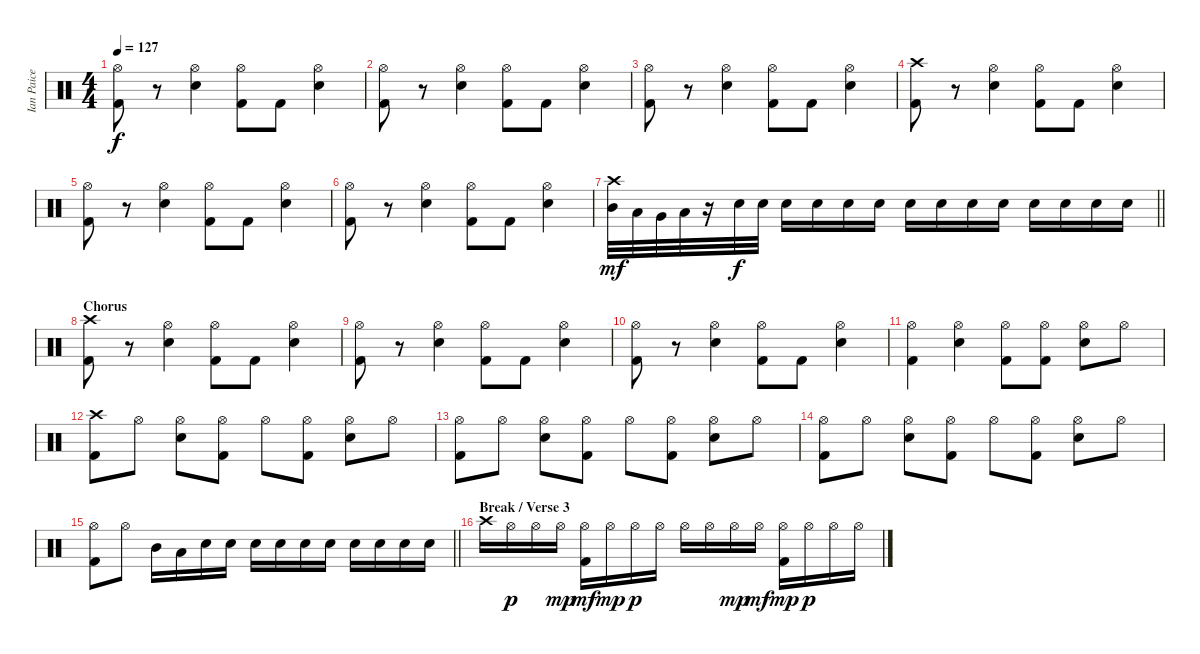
\track ("Ian Paice" "Ian Paice") {instrument percussion}
\staff {score}
\articulation defaults
\ts (4 4)
\tempo 127
\clef neutral
\ks c
("Hi-Hat (open)" "Kick (hit) 2").8{dy f} r.8 ("Hi-Hat (open)" "Snare (hit) 2").4 ("Hi-Hat (open)" "Kick (hit) 2").8 "Kick (hit) 2".8 ("Hi-Hat (open)" "Snare (hit) 2").4 |
("Hi-Hat (open)" "Kick (hit) 2").8 r.8 ("Hi-Hat (open)" "Snare (hit) 2").4 ("Hi-Hat (open)" "Kick (hit) 2").8 "Kick (hit) 2".8 ("Hi-Hat (open)" "Snare (hit) 2").4 |
("Hi-Hat (open)" "Kick (hit) 2").8 r.8 ("Hi-Hat (open)" "Snare (hit) 2").4 ("Hi-Hat (open)" "Kick (hit) 2").8 "Kick (hit) 2".8 ("Hi-Hat (open)" "Snare (hit) 2").4 |
("Crash high (hit)" "Kick (hit) 2").8 r.8 ("Hi-Hat (open)" "Snare (hit) 2").4 ("Hi-Hat (open)" "Kick (hit) 2").8 "Kick (hit) 2".8 ("Hi-Hat (open)" "Snare (hit) 2").4 |
("Hi-Hat (open)" "Kick (hit) 2").8 r.8 ("Hi-Hat (open)" "Snare (hit) 2").4 ("Hi-Hat (open)" "Kick (hit) 2").8 "Kick (hit) 2".8 ("Hi-Hat (open)" "Snare (hit) 2").4 |
("Hi-Hat (open)" "Kick (hit) 2").8 r.8 ("Hi-Hat (open)" "Snare (hit) 2").4 ("Hi-Hat (open)" "Kick (hit) 2").8 "Kick (hit) 2".8 ("Hi-Hat (open)" "Snare (hit) 2").4 |
\barLineRight lightlight
("Crash high (hit)" "Mid Tom (hit)").32{dy mf} "Low Tom (hit)".32 "Very Low Tom (hit)".32 "Low Floor Tom (hit)".32 r.16 "Snare (hit) 2".32{dy f} "Snare (hit) 2".32 "Snare (hit) 2".16 "Snare (hit) 2".16 "Snare (hit) 2".16 "Snare (hit) 2".16 "Snare (hit) 2".16 "Snare (hit) 2".16 "Snare (hit) 2".16 "Snare (hit) 2".16 "Snare (hit) 2".16 "Snare (hit) 2".16 "Snare (hit) 2".16 "Snare (hit) 2".16 |
\section ("" "Chorus")
("Crash high (hit)" "Kick (hit) 2").8 r.8 ("Hi-Hat (open)" "Snare (hit) 2").4 ("Hi-Hat (open)" "Kick (hit) 2").8 "Kick (hit) 2".8 ("Hi-Hat (open)" "Snare (hit) 2").4 |
("Hi-Hat (open)" "Kick (hit) 2").8 r.8 ("Hi-Hat (open)" "Snare (hit) 2").4 ("Hi-Hat (open)" "Kick (hit) 2").8 "Kick (hit) 2".8 ("Hi-Hat (open)" "Snare (hit) 2").4 |
("Hi-Hat (open)" "Kick (hit) 2").8 r.8 ("Hi-Hat (open)" "Snare (hit) 2").4 ("Hi-Hat (open)" "Kick (hit) 2").8 "Kick (hit) 2".8 ("Hi-Hat (open)" "Snare (hit) 2").4 |
("Hi-Hat (open)" "Kick (hit) 2").4 ("Hi-Hat (open)" "Snare (hit) 2").4 ("Hi-Hat (open)" "Kick (hit) 2").8 ("Hi-Hat (open)" "Kick (hit) 2").8 ("Hi-Hat (open)" "Snare (hit) 2").8 "Hi-Hat (open)".8 |
("Crash high (hit)" "Kick (hit) 2").8 "Hi-Hat (open)".8 ("Hi-Hat (open)" "Snare (hit) 2").8 ("Hi-Hat (open)" "Kick (hit) 2").8 "Hi-Hat (open)".8 ("Hi-Hat (open)" "Kick (hit) 2").8 ("Hi-Hat (open)" "Snare (hit) 2").8 "Hi-Hat (open)".8 |
("Hi-Hat (open)" "Kick (hit) 2").8 "Hi-Hat (open)".8 ("Hi-Hat (open)" "Snare (hit) 2").8 ("Hi-Hat (open)" "Kick (hit) 2").8 "Hi-Hat (open)".8 ("Hi-Hat (open)" "Kick (hit) 2").8 ("Hi-Hat (open)" "Snare (hit) 2").8 "Hi-Hat (open)".8 |
("Hi-Hat (open)" "Kick (hit) 2").8 "Hi-Hat (open)".8 ("Hi-Hat (open)" "Snare (hit) 2").8 ("Hi-Hat (open)" "Kick (hit) 2").8 "Hi-Hat (open)".8 ("Hi-Hat (open)" "Kick (hit) 2").8 ("Hi-Hat (open)" "Snare (hit) 2").8 "Hi-Hat (open)".8 |
\barLineRight lightlight
("Hi-Hat (open)" "Kick (hit) 2").8 "Hi-Hat (open)".8 "Mid Tom (hit)".16 "Low Tom (hit)".16 "Snare (hit) 2".16 "Snare (hit) 2".16 "Snare (hit) 2".16 "Snare (hit) 2".16 "Snare (hit) 2".16 "Snare (hit) 2".16 "Snare (hit) 2".16 "Snare (hit) 2".16 "Snare (hit) 2".16 "Snare (hit) 2".16 |
\section ("" "Break / Verse 3")
"Crash high (hit)".16 "Hi-Hat (open)".16{dy p} "Hi-Hat (open)".16 "Hi-Hat (open)".16{dy mp} ("Hi-Hat (open)" "Kick (hit) 2").16{dy mf} "Hi-Hat (open)".16{dy mp} "Hi-Hat (open)".16{dy p} "Hi-Hat (open)".16 "Hi-Hat (open)".16 "Hi-Hat (open)".16 "Hi-Hat (open)".16{dy mp} "Hi-Hat (open)".16{dy mf} ("Hi-Hat (open)" "Kick (hit) 2").16{dy mp} "Hi-Hat (open)".16{dy p} "Hi-Hat (open)".16 "Hi-Hat (open)".16
